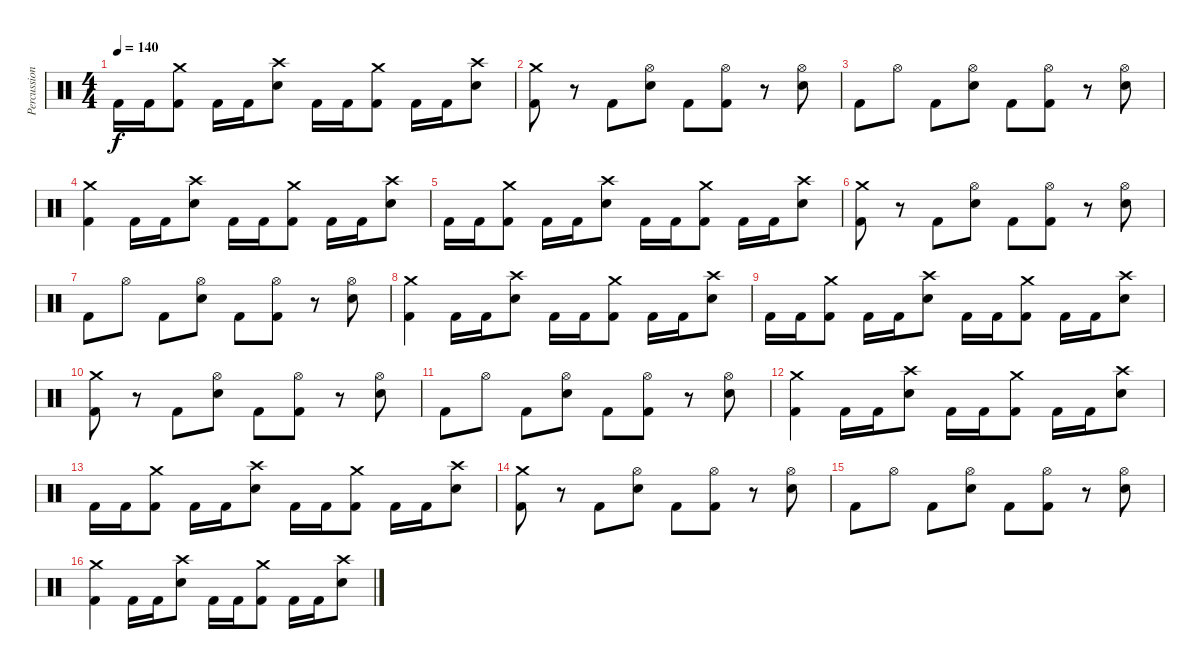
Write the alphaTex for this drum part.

\track ("Percussion" "Percussion") {instrument percussion}
\staff {score}
\articulation defaults
\ts (4 4)
\tempo 140
\clef neutral
\ks c "Kick (hit) 2".16{dy f} "Kick (hit) 2".16
("Crash medium (hit)" "Kick (hit) 2").8 "Kick (hit) 2".16 "Kick (hit) 2".16 ("Crash high (hit)" "Electric Snare (hit)").8 "Kick (hit) 2".16 "Kick (hit) 2".16 ("Crash medium (hit)" "Kick (hit) 2").8 "Kick (hit) 2".16 "Kick (hit) 2".16 ("Crash high (hit)" "Electric Snare (hit)").8 |
("Crash medium (hit)" "Kick (hit) 2").8 r.8 "Kick (hit) 2".8 ("Hi-Hat (open)" "Electric Snare (hit)").8 "Kick (hit) 2".8 ("Hi-Hat (open)" "Kick (hit) 2").8 r.8 ("Hi-Hat (open)" "Electric Snare (hit)").8 |
"Kick (hit) 2".8 "Hi-Hat (open)".8 "Kick (hit) 2".8 ("Hi-Hat (open)" "Electric Snare (hit)").8 "Kick (hit) 2".8 ("Hi-Hat (open)" "Kick (hit) 2").8 r.8 ("Hi-Hat (open)" "Electric Snare (hit)").8 |
("Crash medium (hit)" "Kick (hit) 2").4 "Kick (hit) 2".16 "Kick (hit) 2".16 ("Crash high (hit)" "Electric Snare (hit)").8 "Kick (hit) 2".16 "Kick (hit) 2".16 ("Crash medium (hit)" "Kick (hit) 2").8 "Kick (hit) 2".16 "Kick (hit) 2".16 ("Crash high (hit)" "Electric Snare (hit)").8 |
"Kick (hit) 2".16 "Kick (hit) 2".16 ("Crash medium (hit)" "Kick (hit) 2").8 "Kick (hit) 2".16 "Kick (hit) 2".16 ("Crash high (hit)" "Electric Snare (hit)").8 "Kick (hit) 2".16 "Kick (hit) 2".16 ("Crash medium (hit)" "Kick (hit) 2").8 "Kick (hit) 2".16 "Kick (hit) 2".16 ("Crash high (hit)" "Electric Snare (hit)").8 |
("Crash medium (hit)" "Kick (hit) 2").8 r.8 "Kick (hit) 2".8 ("Hi-Hat (open)" "Electric Snare (hit)").8 "Kick (hit) 2".8 ("Hi-Hat (open)" "Kick (hit) 2").8 r.8 ("Hi-Hat (open)" "Electric Snare (hit)").8 |
"Kick (hit) 2".8 "Hi-Hat (open)".8 "Kick (hit) 2".8 ("Hi-Hat (open)" "Electric Snare (hit)").8 "Kick (hit) 2".8 ("Hi-Hat (open)" "Kick (hit) 2").8 r.8 ("Hi-Hat (open)" "Electric Snare (hit)").8 |
("Crash medium (hit)" "Kick (hit) 2").4 "Kick (hit) 2".16 "Kick (hit) 2".16 ("Crash high (hit)" "Electric Snare (hit)").8 "Kick (hit) 2".16 "Kick (hit) 2".16 ("Crash medium (hit)" "Kick (hit) 2").8 "Kick (hit) 2".16 "Kick (hit) 2".16 ("Crash high (hit)" "Electric Snare (hit)").8 |
"Kick (hit) 2".16 "Kick (hit) 2".16 ("Crash medium (hit)" "Kick (hit) 2").8 "Kick (hit) 2".16 "Kick (hit) 2".16 ("Crash high (hit)" "Electric Snare (hit)").8 "Kick (hit) 2".16 "Kick (hit) 2".16 ("Crash medium (hit)" "Kick (hit) 2").8 "Kick (hit) 2".16 "Kick (hit) 2".16 ("Crash high (hit)" "Electric Snare (hit)").8 |
("Crash medium (hit)" "Kick (hit) 2").8 r.8 "Kick (hit) 2".8 ("Hi-Hat (open)" "Electric Snare (hit)").8 "Kick (hit) 2".8 ("Hi-Hat (open)" "Kick (hit) 2").8 r.8 ("Hi-Hat (open)" "Electric Snare (hit)").8 |
"Kick (hit) 2".8 "Hi-Hat (open)".8 "Kick (hit) 2".8 ("Hi-Hat (open)" "Electric Snare (hit)").8 "Kick (hit) 2".8 ("Hi-Hat (open)" "Kick (hit) 2").8 r.8 ("Hi-Hat (open)" "Electric Snare (hit)").8 |
("Crash medium (hit)" "Kick (hit) 2").4 "Kick (hit) 2".16 "Kick (hit) 2".16 ("Crash high (hit)" "Electric Snare (hit)").8 "Kick (hit) 2".16 "Kick (hit) 2".16 ("Crash medium (hit)" "Kick (hit) 2").8 "Kick (hit) 2".16 "Kick (hit) 2".16 ("Crash high (hit)" "Electric Snare (hit)").8 |
"Kick (hit) 2".16 "Kick (hit) 2".16 ("Crash medium (hit)" "Kick (hit) 2").8 "Kick (hit) 2".16 "Kick (hit) 2".16 ("Crash high (hit)" "Electric Snare (hit)").8 "Kick (hit) 2".16 "Kick (hit) 2".16 ("Crash medium (hit)" "Kick (hit) 2").8 "Kick (hit) 2".16 "Kick (hit) 2".16 ("Crash high (hit)" "Electric Snare (hit)").8 |
("Crash medium (hit)" "Kick (hit) 2").8 r.8 "Kick (hit) 2".8 ("Hi-Hat (open)" "Electric Snare (hit)").8 "Kick (hit) 2".8 ("Hi-Hat (open)" "Kick (hit) 2").8 r.8 ("Hi-Hat (open)" "Electric Snare (hit)").8 |
"Kick (hit) 2".8 "Hi-Hat (open)".8 "Kick (hit) 2".8 ("Hi-Hat (open)" "Electric Snare (hit)").8 "Kick (hit) 2".8 ("Hi-Hat (open)" "Kick (hit) 2").8 r.8 ("Hi-Hat (open)" "Electric Snare (hit)").8 |
("Crash medium (hit)" "Kick (hit) 2").4 "Kick (hit) 2".16 "Kick (hit) 2".16 ("Crash high (hit)" "Electric Snare (hit)").8 "Kick (hit) 2".16 "Kick (hit) 2".16 ("Crash medium (hit)" "Kick (hit) 2").8 "Kick (hit) 2".16 "Kick (hit) 2".16 ("Crash high (hit)" "Electric Snare (hit)").8
